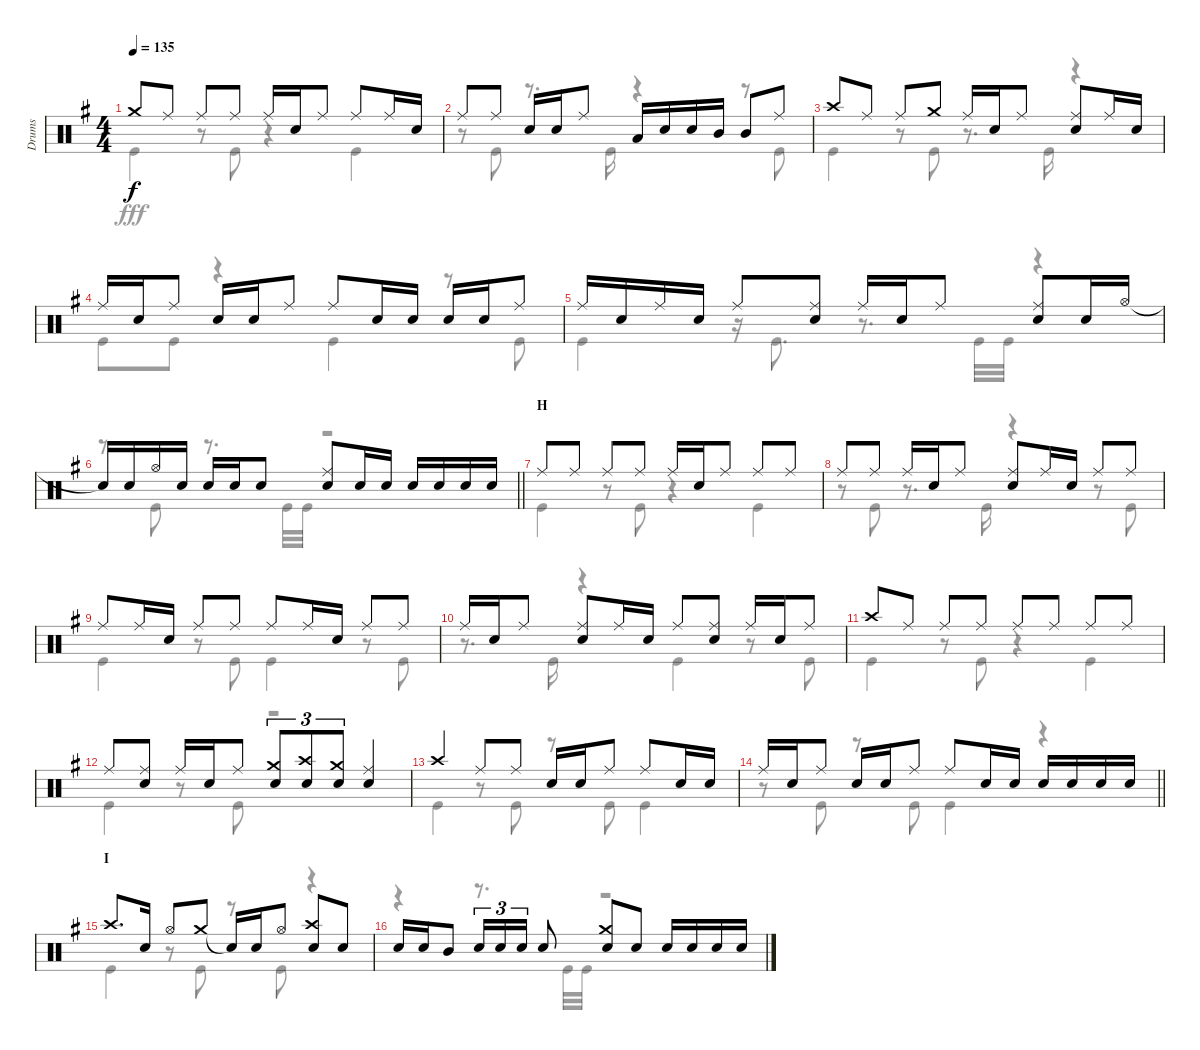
\track ("Drums" "Drums") {instrument percussion}
\staff {score}
\articulation defaults
\voice
\ts (4 4)
\tempo 135
\clef neutral
\ks g "Crash medium (hit)".8{dy f} "Ride (middle)".8 "Ride (middle)".8 "Ride (middle)".8 "Ride (middle)".16 "Snare (hit) 2".16 "Ride (middle)".8 "Ride (middle)".8 "Ride (middle)".16 "Snare (hit) 2".16
|
"Ride (middle)".8 "Ride (middle)".8 "Snare (hit) 2".16 "Snare (hit) 2".16 "Ride (middle)".8 "Low Tom (hit)".16 "Snare (hit) 2".16 "Snare (hit) 2".16 "Mid Tom (hit)".16 "Mid Tom (hit)".8 "Ride (middle)".8 |
"Crash high (hit)".8 "Ride (middle)".8 "Ride (middle)".8 "Crash medium (hit)".8 "Ride (middle)".16 "Snare (hit) 2".16 "Ride (middle)".8 ("Ride (middle)" "Snare (hit) 2").8 "Ride (middle)".16 "Snare (hit) 2".16 |
"Ride (middle)".16 "Snare (hit) 2".16 "Ride (middle)".8 "Snare (hit) 2".16 "Snare (hit) 2".16 "Ride (middle)".8 "Ride (middle)".8 "Snare (hit) 2".16 "Snare (hit) 2".16 "Snare (hit) 2".16 "Snare (hit) 2".16 "Ride (middle)".8 |
"Ride (middle)".16 "Snare (hit) 2".16 "Ride (middle)".16 "Snare (hit) 2".16 "Ride (middle)".8 ("Ride (middle)" "Snare (hit) 2").8 "Ride (middle)".16 "Snare (hit) 2".16 "Ride (middle)".8 ("Ride (middle)" "Snare (hit) 2").8 "Snare (hit) 2".16 "Hi-Hat (open)".16 |
\barLineRight lightlight "Snare (hit)"{t}.16 "Snare (hit) 2".16 "Hi-Hat (open)".16 "Snare (hit) 2".16 "Snare (hit) 2".16 "Snare (hit) 2".16 "Snare (hit) 2".8
("Ride (middle)" "Snare (hit) 2").8 "Snare (hit) 2".16 "Snare (hit) 2".16 "Snare (hit) 2".16 "Snare (hit) 2".16 "Snare (hit) 2".16 "Snare (hit) 2".16 |
\section ("" "H")
"Ride (middle)".8 "Ride (middle)".8 "Ride (middle)".8 "Ride (middle)".8 "Ride (middle)".16 "Snare (hit) 2".16 "Ride (middle)".8 "Ride (middle)".8 "Ride (middle)".8 |
"Ride (middle)".8 "Ride (middle)".8 "Ride (middle)".16 "Snare (hit) 2".16 "Ride (middle)".8 ("Ride (middle)" "Snare (hit) 2").8 "Ride (middle)".16 "Snare (hit) 2".16 "Ride (middle)".8 "Ride (middle)".8 |
"Ride (middle)".8 "Ride (middle)".16 "Snare (hit) 2".16 "Ride (middle)".8 "Ride (middle)".8 "Ride (middle)".8 "Ride (middle)".16 "Snare (hit) 2".16 "Ride (middle)".8 "Ride (middle)".8 |
"Ride (middle)".16 "Snare (hit) 2".16 "Ride (middle)".8 ("Ride (middle)" "Snare (hit) 2").8 "Ride (middle)".16 "Snare (hit) 2".16 "Ride (middle)".8 ("Ride (middle)" "Snare (hit) 2").8 "Ride (middle)".16 "Snare (hit) 2".16 "Ride (middle)".8 |
"Crash high (hit)".8 "Ride (middle)".8 "Ride (middle)".8 "Ride (middle)".8 "Ride (middle)".8 "Ride (middle)".8 "Ride (middle)".8 "Ride (middle)".8 |
"Ride (middle)".8 ("Ride (middle)" "Snare (hit) 2").8 "Ride (middle)".16 "Snare (hit) 2".16 "Ride (middle)".8 ("Crash medium (hit)" "Snare (hit) 2").8{tu (3 2)} ("Crash high (hit)" "Snare (hit) 2").8{tu (3 2)} ("Crash medium (hit)" "Snare (hit) 2").8{tu (3 2)} ("Ride (middle)" "Snare (hit) 2").4 |
"Crash high (hit)".4 "Ride (middle)".8 "Ride (middle)".8 "Snare (hit) 2".16 "Snare (hit) 2".16 "Ride (middle)".8 "Ride (middle)".8 "Snare (hit) 2".16 "Snare (hit) 2".16 |
\barLineRight lightlight "Ride (middle)".16 "Snare (hit) 2".16 "Ride (middle)".8 "Snare (hit) 2".16 "Snare (hit) 2".16 "Ride (middle)".8 "Ride (middle)".8 "Snare (hit) 2".16 "Snare (hit) 2".16 "Snare (hit) 2".16 "Snare (hit) 2".16 "Snare (hit) 2".16 "Snare (hit) 2".16
|
\section ("" "I")
"Crash high (hit)".8{d} "Snare (hit) 2".16 "Hi-Hat (open)".8 "Crash medium (hit)".8 "Snare (hit)"{t}.16 "Snare (hit) 2".16 "Hi-Hat (open)".8 ("Crash high (hit)" "Snare (hit) 2").8 "Snare (hit) 2".8 |
"Snare (hit) 2".16 "Snare (hit) 2".16 "Mid Tom (hit)".8 "Snare (hit) 2".16{tu (3 2)} "Snare (hit) 2".16{tu (3 2)} "Snare (hit) 2".16{tu (3 2)} "Snare (hit) 2".8 ("Crash medium (hit)" "Snare (hit) 2").8 "Snare (hit) 2".8 "Snare (hit) 2".16 "Snare (hit) 2".16 "Snare (hit) 2".16 "Snare (hit) 2".16
\voice
\clef neutral
\ottava regular
\simile none
\ks g "Kick (hit)".4{dy fff}
r.8 "Kick (hit)".8 r.4 "Kick (hit)".4 |
r.8 "Kick (hit)".8 r.8{d} "Kick (hit)".16 r.4 r.8 "Kick (hit)".8 |
"Kick (hit)".4 r.8 "Kick (hit)".8 r.8{d} "Kick (hit)".16 r.4 |
"Kick (hit)".8 "Kick (hit)".8 r.4 "Kick (hit)".4 r.8 "Kick (hit)".8 |
"Kick (hit)".4 r.16 "Kick (hit)".8{d} r.8{d} "Kick (hit)".32 "Kick (hit)".32 r.4 |
\barLineRight lightlight
r.8 "Kick (hit)".8 r.8{d} "Kick (hit)".32 "Kick (hit)".32 r.2 |
"Kick (hit)".4 r.8 "Kick (hit)".8 r.4 "Kick (hit)".4 |
r.8 "Kick (hit)".8 r.8{d} "Kick (hit)".16 r.4 r.8 "Kick (hit)".8 |
"Kick (hit)".4 r.8 "Kick (hit)".8 "Kick (hit)".4 r.8 "Kick (hit)".8 |
r.8{d} "Kick (hit)".16 r.4 "Kick (hit)".4 r.8 "Kick (hit)".8 |
"Kick (hit)".4 r.8 "Kick (hit)".8 r.4 "Kick (hit)".4 |
"Kick (hit)".4 r.8 "Kick (hit)".8 r.2 |
"Kick (hit)".4 r.8 "Kick (hit)".8 r.8 "Kick (hit)".8 "Kick (hit)".4 |
\barLineRight lightlight
r.8 "Kick (hit)".8 r.8 "Kick (hit)".8 "Kick (hit)".4 r.4 |
"Kick (hit)".4 r.8 "Kick (hit)".8 r.8 "Kick (hit)".8 r.4 |
r.4 r.8{d} "Kick (hit)".32 "Kick (hit)".32 r.2
